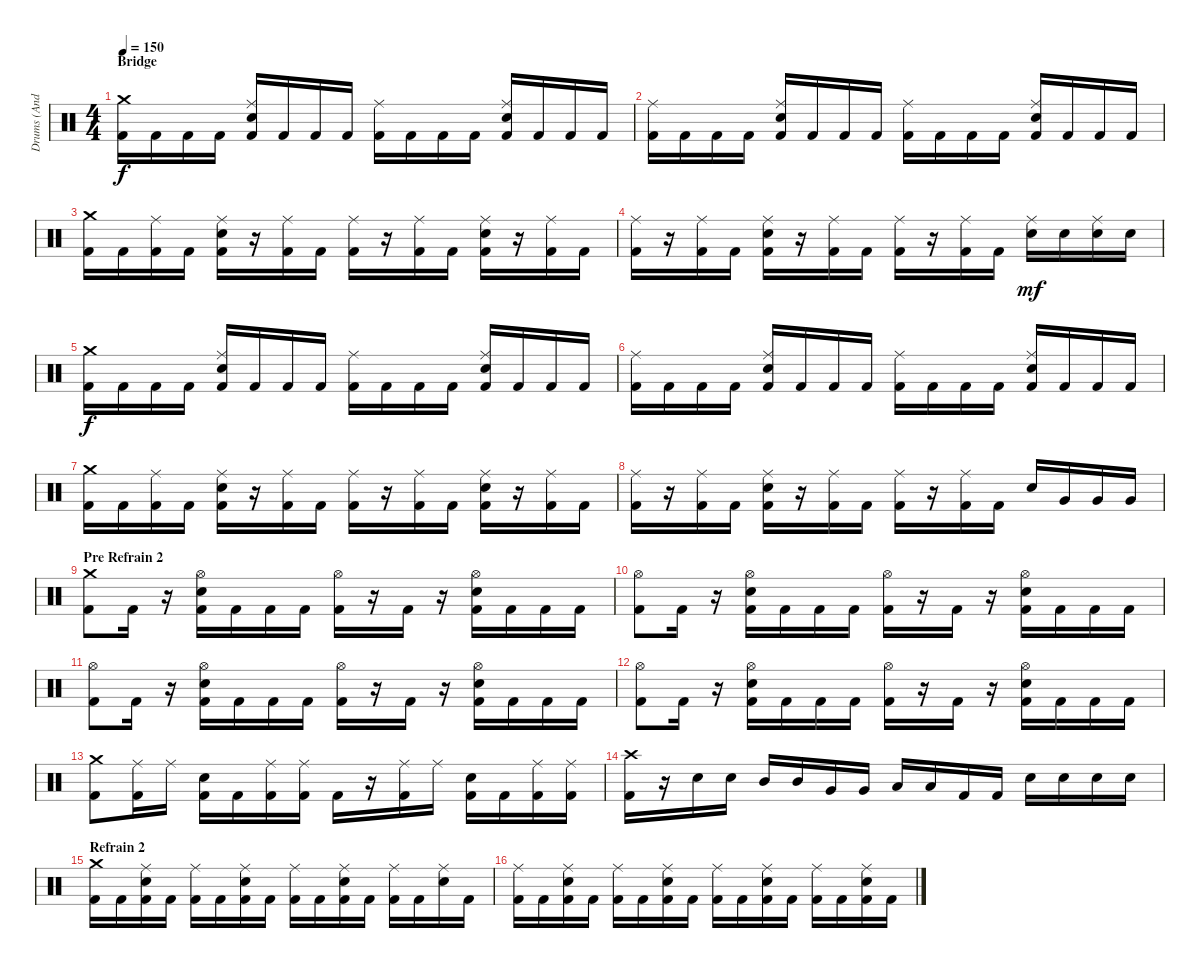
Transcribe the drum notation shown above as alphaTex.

\track ("Drums (Andy C)" "Drums (And") {instrument percussion}
\staff {score}
\articulation defaults
\ts (4 4)
\section ("" "Bridge")
\tempo 150
\clef neutral
\ks c
("Crash medium (hit)" "Kick (hit) 2").16{dy f} "Kick (hit) 2".16 "Kick (hit) 2".16 "Kick (hit) 2".16 ("Ride (middle)" "Kick (hit) 2" "Electric Snare (hit)").16 "Kick (hit) 2".16 "Kick (hit) 2".16 "Kick (hit) 2".16 ("Ride (middle)" "Kick (hit) 2").16 "Kick (hit) 2".16 "Kick (hit) 2".16 "Kick (hit) 2".16 ("Ride (middle)" "Kick (hit) 2" "Electric Snare (hit)").16 "Kick (hit) 2".16 "Kick (hit) 2".16 "Kick (hit) 2".16 |
("Ride (middle)" "Kick (hit) 2").16 "Kick (hit) 2".16 "Kick (hit) 2".16 "Kick (hit) 2".16 ("Ride (middle)" "Kick (hit) 2" "Electric Snare (hit)").16 "Kick (hit) 2".16 "Kick (hit) 2".16 "Kick (hit) 2".16 ("Ride (middle)" "Kick (hit) 2").16 "Kick (hit) 2".16 "Kick (hit) 2".16 "Kick (hit) 2".16 ("Ride (middle)" "Kick (hit) 2" "Electric Snare (hit)").16 "Kick (hit) 2".16 "Kick (hit) 2".16 "Kick (hit) 2".16 |
("Crash medium (hit)" "Kick (hit) 2").16 "Kick (hit) 2".16 ("Ride (middle)" "Kick (hit) 2").16 "Kick (hit) 2".16 ("Ride (middle)" "Kick (hit) 2" "Electric Snare (hit)").16 r.16 ("Ride (middle)" "Kick (hit) 2").16 "Kick (hit) 2".16 ("Ride (middle)" "Kick (hit) 2").16 r.16 ("Ride (middle)" "Kick (hit) 2").16 "Kick (hit) 2".16 ("Ride (middle)" "Kick (hit) 2" "Electric Snare (hit)").16 r.16 ("Ride (middle)" "Kick (hit) 2").16 "Kick (hit) 2".16 |
("Ride (middle)" "Kick (hit) 2").16 r.16 ("Ride (middle)" "Kick (hit) 2").16 "Kick (hit) 2".16 ("Ride (middle)" "Kick (hit) 2" "Electric Snare (hit)").16 r.16 ("Ride (middle)" "Kick (hit) 2").16 "Kick (hit) 2".16 ("Ride (middle)" "Kick (hit) 2").16 r.16 ("Ride (middle)" "Kick (hit) 2").16 "Kick (hit) 2".16 ("Ride (middle)" "Electric Snare (hit)").16{dy mf} "Electric Snare (hit)".16 ("Ride (middle)" "Electric Snare (hit)").16 "Electric Snare (hit)".16 |
("Crash medium (hit)" "Kick (hit) 2").16{dy f} "Kick (hit) 2".16 "Kick (hit) 2".16 "Kick (hit) 2".16 ("Ride (middle)" "Kick (hit) 2" "Electric Snare (hit)").16 "Kick (hit) 2".16 "Kick (hit) 2".16 "Kick (hit) 2".16 ("Ride (middle)" "Kick (hit) 2").16 "Kick (hit) 2".16 "Kick (hit) 2".16 "Kick (hit) 2".16 ("Ride (middle)" "Kick (hit) 2" "Electric Snare (hit)").16 "Kick (hit) 2".16 "Kick (hit) 2".16 "Kick (hit) 2".16 |
("Ride (middle)" "Kick (hit) 2").16 "Kick (hit) 2".16 "Kick (hit) 2".16 "Kick (hit) 2".16 ("Ride (middle)" "Kick (hit) 2" "Electric Snare (hit)").16 "Kick (hit) 2".16 "Kick (hit) 2".16 "Kick (hit) 2".16 ("Ride (middle)" "Kick (hit) 2").16 "Kick (hit) 2".16 "Kick (hit) 2".16 "Kick (hit) 2".16 ("Ride (middle)" "Kick (hit) 2" "Electric Snare (hit)").16 "Kick (hit) 2".16 "Kick (hit) 2".16 "Kick (hit) 2".16 |
("Crash medium (hit)" "Kick (hit) 2").16 "Kick (hit) 2".16 ("Ride (middle)" "Kick (hit) 2").16 "Kick (hit) 2".16 ("Ride (middle)" "Kick (hit) 2" "Electric Snare (hit)").16 r.16 ("Ride (middle)" "Kick (hit) 2").16 "Kick (hit) 2".16 ("Ride (middle)" "Kick (hit) 2").16 r.16 ("Ride (middle)" "Kick (hit) 2").16 "Kick (hit) 2".16 ("Ride (middle)" "Kick (hit) 2" "Electric Snare (hit)").16 r.16 ("Ride (middle)" "Kick (hit) 2").16 "Kick (hit) 2".16 |
("Ride (middle)" "Kick (hit) 2").16 r.16 ("Ride (middle)" "Kick (hit) 2").16 "Kick (hit) 2".16 ("Ride (middle)" "Kick (hit) 2" "Electric Snare (hit)").16 r.16 ("Ride (middle)" "Kick (hit) 2").16 "Kick (hit) 2".16 ("Ride (middle)" "Kick (hit) 2").16 r.16 ("Ride (middle)" "Kick (hit) 2").16 "Kick (hit) 2".16 "Electric Snare (hit)".16 "Very Low Tom (hit)".16 "Very Low Tom (hit)".16 "Very Low Tom (hit)".16 |
\section ("" "Pre Refrain 2")
("Crash medium (hit)" "Kick (hit) 2").8 "Kick (hit) 2".16 r.16 ("Hi-Hat (open)" "Kick (hit) 2" "Electric Snare (hit)").16 "Kick (hit) 2".16 "Kick (hit) 2".16 "Kick (hit) 2".16 ("Hi-Hat (open)" "Kick (hit) 2").16 r.16 "Kick (hit) 2".16 r.16 ("Hi-Hat (open)" "Kick (hit) 2" "Electric Snare (hit)").16 "Kick (hit) 2".16 "Kick (hit) 2".16 "Kick (hit) 2".16 |
("Hi-Hat (open)" "Kick (hit) 2").8 "Kick (hit) 2".16 r.16 ("Hi-Hat (open)" "Kick (hit) 2" "Electric Snare (hit)").16 "Kick (hit) 2".16 "Kick (hit) 2".16 "Kick (hit) 2".16 ("Hi-Hat (open)" "Kick (hit) 2").16 r.16 "Kick (hit) 2".16 r.16 ("Hi-Hat (open)" "Kick (hit) 2" "Electric Snare (hit)").16 "Kick (hit) 2".16 "Kick (hit) 2".16 "Kick (hit) 2".16 |
("Hi-Hat (open)" "Kick (hit) 2").8 "Kick (hit) 2".16 r.16 ("Hi-Hat (open)" "Kick (hit) 2" "Electric Snare (hit)").16 "Kick (hit) 2".16 "Kick (hit) 2".16 "Kick (hit) 2".16 ("Hi-Hat (open)" "Kick (hit) 2").16 r.16 "Kick (hit) 2".16 r.16 ("Hi-Hat (open)" "Kick (hit) 2" "Electric Snare (hit)").16 "Kick (hit) 2".16 "Kick (hit) 2".16 "Kick (hit) 2".16 |
("Hi-Hat (open)" "Kick (hit) 2").8 "Kick (hit) 2".16 r.16 ("Hi-Hat (open)" "Kick (hit) 2" "Electric Snare (hit)").16 "Kick (hit) 2".16 "Kick (hit) 2".16 "Kick (hit) 2".16 ("Hi-Hat (open)" "Kick (hit) 2").16 r.16 "Kick (hit) 2".16 r.16 ("Hi-Hat (open)" "Kick (hit) 2" "Electric Snare (hit)").16 "Kick (hit) 2".16 "Kick (hit) 2".16 "Kick (hit) 2".16 |
("Crash medium (hit)" "Kick (hit) 2").8 ("Ride (middle)" "Kick (hit) 2").16 "Ride (middle)".16 ("Kick (hit) 2" "Electric Snare (hit)").16 "Kick (hit) 2".16 ("Ride (middle)" "Kick (hit) 2").16 ("Ride (middle)" "Kick (hit) 2").16 "Kick (hit) 2".16 r.16 ("Ride (middle)" "Kick (hit) 2").16 "Ride (middle)".16 ("Kick (hit) 2" "Electric Snare (hit)").16 "Kick (hit) 2".16 ("Ride (middle)" "Kick (hit) 2").16 ("Ride (middle)" "Kick (hit) 2").16 |
("Crash high (hit)" "Kick (hit) 2").16 r.16 "Electric Snare (hit)".16 "Electric Snare (hit)".16 "Mid Tom (hit)".16 "Mid Tom (hit)".16 "Very Low Tom (hit)".16 "Very Low Tom (hit)".16 "Low Floor Tom (hit)".16 "Low Floor Tom (hit)".16 "Kick (hit) 2".16 "Kick (hit) 2".16 "Electric Snare (hit)".16 "Electric Snare (hit)".16 "Electric Snare (hit)".16 "Electric Snare (hit)".16 |
\section ("" "Refrain 2")
("Crash medium (hit)" "Kick (hit) 2").16 "Kick (hit) 2".16 ("Ride (middle)" "Kick (hit) 2" "Electric Snare (hit)").16 "Kick (hit) 2".16 ("Ride (middle)" "Kick (hit) 2").16 "Kick (hit) 2".16 ("Ride (middle)" "Kick (hit) 2" "Electric Snare (hit)").16 "Kick (hit) 2".16 ("Ride (middle)" "Kick (hit) 2").16 "Kick (hit) 2".16 ("Ride (middle)" "Kick (hit) 2" "Electric Snare (hit)").16 "Kick (hit) 2".16 ("Ride (middle)" "Kick (hit) 2").16 "Kick (hit) 2".16 ("Ride (middle)" "Electric Snare (hit)").16 "Kick (hit) 2".16 |
("Ride (middle)" "Kick (hit) 2").16 "Kick (hit) 2".16 ("Ride (middle)" "Kick (hit) 2" "Electric Snare (hit)").16 "Kick (hit) 2".16 ("Ride (middle)" "Kick (hit) 2").16 "Kick (hit) 2".16 ("Ride (middle)" "Kick (hit) 2" "Electric Snare (hit)").16 "Kick (hit) 2".16 ("Ride (middle)" "Kick (hit) 2").16 "Kick (hit) 2".16 ("Ride (middle)" "Kick (hit) 2" "Electric Snare (hit)").16 "Kick (hit) 2".16 ("Ride (middle)" "Kick (hit) 2").16 "Kick (hit) 2".16 ("Ride (middle)" "Kick (hit) 2" "Electric Snare (hit)").16 "Kick (hit) 2".16
